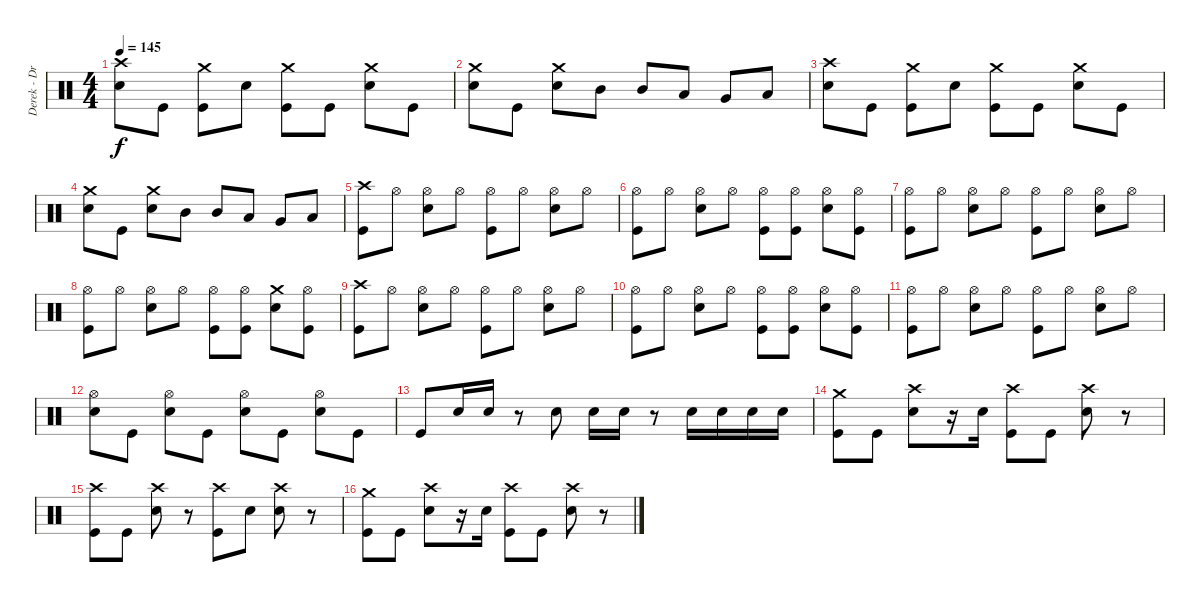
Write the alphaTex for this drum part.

\track ("Derek - Drums" "Derek - Dr") {instrument percussion}
\staff {score}
\articulation defaults
\ts (4 4)
\tempo 145
\clef neutral
\ks c
("Crash high (hit)" "Electric Snare (hit)").8{dy f} "Kick (hit)".8 ("Crash medium (hit)" "Kick (hit)").8 "Electric Snare (hit)".8 ("Crash medium (hit)" "Kick (hit)").8 "Kick (hit)".8 ("Crash medium (hit)" "Electric Snare (hit)").8 "Kick (hit)".8 |
("Crash medium (hit)" "Electric Snare (hit)").8 "Kick (hit)".8 ("Crash medium (hit)" "Electric Snare (hit)").8 "Mid Tom (hit)".8 "Mid Tom (hit)".8 "Low Tom (hit)".8 "Very Low Tom (hit)".8 "Low Floor Tom (hit)".8 |
("Crash high (hit)" "Electric Snare (hit)").8 "Kick (hit)".8 ("Crash medium (hit)" "Kick (hit)").8 "Electric Snare (hit)".8 ("Crash medium (hit)" "Kick (hit)").8 "Kick (hit)".8 ("Crash medium (hit)" "Electric Snare (hit)").8 "Kick (hit)".8 |
("Crash medium (hit)" "Electric Snare (hit)").8 "Kick (hit)".8 ("Crash medium (hit)" "Electric Snare (hit)").8 "Mid Tom (hit)".8 "Mid Tom (hit)".8 "Low Tom (hit)".8 "Very Low Tom (hit)".8 "Low Floor Tom (hit)".8 |
("Crash high (hit)" "Kick (hit)").8 "Hi-Hat (open)".8 ("Hi-Hat (open)" "Electric Snare (hit)").8 "Hi-Hat (open)".8 ("Hi-Hat (open)" "Kick (hit)").8 "Hi-Hat (open)".8 ("Hi-Hat (open)" "Electric Snare (hit)").8 "Hi-Hat (open)".8 |
("Hi-Hat (open)" "Kick (hit)").8 "Hi-Hat (open)".8 ("Hi-Hat (open)" "Electric Snare (hit)").8 "Hi-Hat (open)".8 ("Hi-Hat (open)" "Kick (hit)").8 ("Hi-Hat (open)" "Kick (hit)").8 ("Hi-Hat (open)" "Electric Snare (hit)").8 ("Hi-Hat (open)" "Kick (hit)").8 |
("Hi-Hat (open)" "Kick (hit)").8 "Hi-Hat (open)".8 ("Hi-Hat (open)" "Electric Snare (hit)").8 "Hi-Hat (open)".8 ("Hi-Hat (open)" "Kick (hit)").8 "Hi-Hat (open)".8 ("Hi-Hat (open)" "Electric Snare (hit)").8 "Hi-Hat (open)".8 |
("Hi-Hat (open)" "Kick (hit)").8 "Hi-Hat (open)".8 ("Hi-Hat (open)" "Electric Snare (hit)").8 "Hi-Hat (open)".8 ("Hi-Hat (open)" "Kick (hit)").8 ("Hi-Hat (open)" "Kick (hit)").8 ("Crash medium (hit)" "Electric Snare (hit)").8 ("Hi-Hat (open)" "Kick (hit)").8 |
("Crash high (hit)" "Kick (hit)").8 "Hi-Hat (open)".8 ("Hi-Hat (open)" "Electric Snare (hit)").8 "Hi-Hat (open)".8 ("Hi-Hat (open)" "Kick (hit)").8 "Hi-Hat (open)".8 ("Hi-Hat (open)" "Electric Snare (hit)").8 "Hi-Hat (open)".8 |
("Hi-Hat (open)" "Kick (hit)").8 "Hi-Hat (open)".8 ("Hi-Hat (open)" "Electric Snare (hit)").8 "Hi-Hat (open)".8 ("Hi-Hat (open)" "Kick (hit)").8 ("Hi-Hat (open)" "Kick (hit)").8 ("Hi-Hat (open)" "Electric Snare (hit)").8 ("Hi-Hat (open)" "Kick (hit)").8 |
("Hi-Hat (open)" "Kick (hit)").8 "Hi-Hat (open)".8 ("Hi-Hat (open)" "Electric Snare (hit)").8 "Hi-Hat (open)".8 ("Hi-Hat (open)" "Kick (hit)").8 "Hi-Hat (open)".8 ("Hi-Hat (open)" "Electric Snare (hit)").8 "Hi-Hat (open)".8 |
("Hi-Hat (open)" "Electric Snare (hit)").8 "Kick (hit)".8 ("Hi-Hat (open)" "Electric Snare (hit)").8 "Kick (hit)".8 ("Hi-Hat (open)" "Electric Snare (hit)").8 "Kick (hit)".8 ("Hi-Hat (open)" "Electric Snare (hit)").8 "Kick (hit)".8 |
"Kick (hit)".8 "Electric Snare (hit)".16 "Electric Snare (hit)".16 r.8 "Electric Snare (hit)".8 "Electric Snare (hit)".16 "Electric Snare (hit)".16 r.8 "Electric Snare (hit)".16 "Electric Snare (hit)".16 "Electric Snare (hit)".16 "Electric Snare (hit)".16 |
("Crash medium (hit)" "Kick (hit)").8 "Kick (hit)".8 ("Crash high (hit)" "Electric Snare (hit)").8 r.16 "Electric Snare (hit)".16 ("Crash high (hit)" "Kick (hit)").8 "Kick (hit)".8 ("Crash high (hit)" "Electric Snare (hit)").8 r.8 |
("Crash high (hit)" "Kick (hit)").8 "Kick (hit)".8 ("Crash high (hit)" "Electric Snare (hit)").8 r.8 ("Crash high (hit)" "Kick (hit)").8 "Electric Snare (hit)".8 ("Crash high (hit)" "Electric Snare (hit)").8 r.8 |
("Crash medium (hit)" "Kick (hit)").8 "Kick (hit)".8 ("Crash high (hit)" "Electric Snare (hit)").8 r.16 "Electric Snare (hit)".16 ("Crash high (hit)" "Kick (hit)").8 "Kick (hit)".8 ("Crash high (hit)" "Electric Snare (hit)").8 r.8
